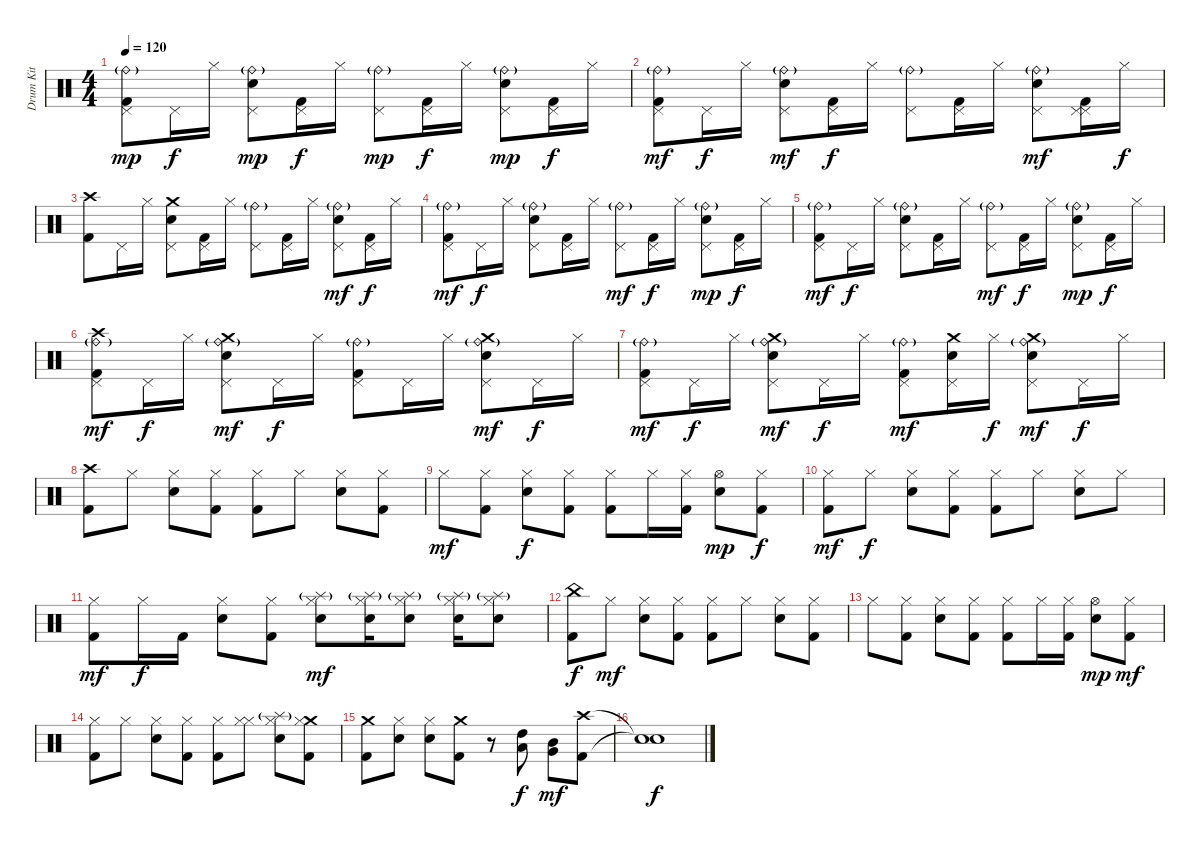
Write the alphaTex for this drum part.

\track ("Drum Kit" "Drum Kit") {instrument percussion}
\staff {score}
\articulation defaults
\ts (4 4)
\tempo 120
\clef neutral
\ks c
("Kick (hit) 2" "Pedal Hi-Hat (hit)" "Ride (bell)"{g}).8{dy mp} "Pedal Hi-Hat (hit)".16{dy f} "Hi-Hat (closed)".16 ("Electric Snare (hit)" "Pedal Hi-Hat (hit)" "Ride (bell)"{g}).8{dy mp} ("Kick (hit) 2" "Pedal Hi-Hat (hit)").16{dy f} "Hi-Hat (closed)".16 ("Pedal Hi-Hat (hit)" "Ride (bell)"{g}).8{dy mp} ("Kick (hit) 2" "Pedal Hi-Hat (hit)").16{dy f} "Hi-Hat (closed)".16 ("Electric Snare (hit)" "Pedal Hi-Hat (hit)" "Ride (bell)"{g}).8{dy mp} ("Kick (hit) 2" "Pedal Hi-Hat (hit)").16{dy f} "Hi-Hat (closed)".16 |
("Kick (hit) 2" "Pedal Hi-Hat (hit)" "Ride (bell)"{g}).8{dy mf} "Pedal Hi-Hat (hit)".16{dy f} "Hi-Hat (closed)".16 ("Electric Snare (hit)" "Pedal Hi-Hat (hit)" "Ride (bell)"{g}).8{dy mf} ("Kick (hit) 2" "Pedal Hi-Hat (hit)").16{dy f} "Hi-Hat (closed)".16 ("Pedal Hi-Hat (hit)" "Ride (bell)"{g}).8 ("Kick (hit) 2" "Pedal Hi-Hat (hit)").16 "Hi-Hat (closed)".16 ("Electric Snare (hit)" "Pedal Hi-Hat (hit)" "Ride (bell)"{g}).8{dy mf} ("Kick (hit) 2" "Pedal Hi-Hat (hit)" "Pedal Hi-Hat (hit)").16 "Hi-Hat (closed)".16{dy f} |
("Crash high (hit)" "Kick (hit) 2").8 "Pedal Hi-Hat (hit)".16 "Hi-Hat (closed)".16 ("Crash medium (hit)" "Electric Snare (hit)" "Pedal Hi-Hat (hit)").8 ("Kick (hit) 2" "Pedal Hi-Hat (hit)").16 "Hi-Hat (closed)".16 ("Pedal Hi-Hat (hit)" "Ride (bell)"{g}).8 ("Kick (hit) 2" "Pedal Hi-Hat (hit)").16 "Hi-Hat (closed)".16 ("Electric Snare (hit)" "Pedal Hi-Hat (hit)" "Ride (bell)"{g}).8{dy mf} ("Kick (hit) 2" "Pedal Hi-Hat (hit)").16{dy f} "Hi-Hat (closed)".16 |
("Kick (hit) 2" "Pedal Hi-Hat (hit)" "Ride (bell)"{g}).8{dy mf} "Pedal Hi-Hat (hit)".16{dy f} "Hi-Hat (closed)".16 ("Electric Snare (hit)" "Pedal Hi-Hat (hit)" "Ride (bell)"{g}).8 ("Kick (hit) 2" "Pedal Hi-Hat (hit)").16 "Hi-Hat (closed)".16 ("Pedal Hi-Hat (hit)" "Ride (bell)"{g}).8{dy mf} ("Kick (hit) 2" "Pedal Hi-Hat (hit)").16{dy f} "Hi-Hat (closed)".16 ("Electric Snare (hit)" "Pedal Hi-Hat (hit)" "Ride (bell)"{g}).8{dy mp} ("Kick (hit) 2" "Pedal Hi-Hat (hit)").16{dy f} "Hi-Hat (closed)".16 |
("Kick (hit) 2" "Pedal Hi-Hat (hit)" "Ride (bell)"{g}).8{dy mf} "Pedal Hi-Hat (hit)".16{dy f} "Hi-Hat (closed)".16 ("Electric Snare (hit)" "Pedal Hi-Hat (hit)" "Ride (bell)"{g}).8 ("Kick (hit) 2" "Pedal Hi-Hat (hit)").16 "Hi-Hat (closed)".16 ("Pedal Hi-Hat (hit)" "Ride (bell)"{g}).8{dy mf} ("Kick (hit) 2" "Pedal Hi-Hat (hit)").16{dy f} "Hi-Hat (closed)".16 ("Electric Snare (hit)" "Pedal Hi-Hat (hit)" "Ride (bell)"{g}).8{dy mp} ("Kick (hit) 2" "Pedal Hi-Hat (hit)").16{dy f} "Hi-Hat (closed)".16 |
("Crash high (hit)" "Kick (hit) 2" "Pedal Hi-Hat (hit)" "Ride (bell)"{g}).8{dy mf} "Pedal Hi-Hat (hit)".16{dy f} "Hi-Hat (closed)".16 ("Crash medium (hit)" "Electric Snare (hit)" "Pedal Hi-Hat (hit)" "Ride (bell)"{g}).8{dy mf} "Pedal Hi-Hat (hit)".16{dy f} "Hi-Hat (closed)".16 ("Kick (hit) 2" "Pedal Hi-Hat (hit)" "Ride (bell)"{g}).8 "Pedal Hi-Hat (hit)".16 "Hi-Hat (closed)".16 ("Crash medium (hit)" "Electric Snare (hit)" "Pedal Hi-Hat (hit)" "Ride (bell)"{g}).8{dy mf} "Pedal Hi-Hat (hit)".16{dy f} "Hi-Hat (closed)".16 |
("Kick (hit) 2" "Pedal Hi-Hat (hit)" "Ride (bell)"{g}).8{dy mf} "Pedal Hi-Hat (hit)".16{dy f} "Hi-Hat (closed)".16 ("Crash medium (hit)" "Electric Snare (hit)" "Pedal Hi-Hat (hit)" "Ride (bell)"{g}).8{dy mf} "Pedal Hi-Hat (hit)".16{dy f} "Hi-Hat (closed)".16 ("Kick (hit) 2" "Pedal Hi-Hat (hit)" "Ride (bell)"{g}).8{dy mf} ("Crash medium (hit)" "Electric Snare (hit)" "Pedal Hi-Hat (hit)").16 "Hi-Hat (closed)".16{dy f} ("Crash medium (hit)" "Electric Snare (hit)" "Pedal Hi-Hat (hit)" "Ride (bell)"{g}).8{dy mf} "Pedal Hi-Hat (hit)".16{dy f} "Hi-Hat (closed)".16 |
("Crash high (hit)" "Kick (hit) 2").8 "Hi-Hat (closed)".8 ("Electric Snare (hit)" "Hi-Hat (closed)").8 ("Kick (hit) 2" "Hi-Hat (closed)").8 ("Kick (hit) 2" "Hi-Hat (closed)").8 "Hi-Hat (closed)".8 ("Electric Snare (hit)" "Hi-Hat (closed)").8 ("Kick (hit) 2" "Hi-Hat (closed)").8 |
"Hi-Hat (closed)".8{dy mf} ("Kick (hit) 2" "Hi-Hat (closed)").8 ("Electric Snare (hit)" "Hi-Hat (closed)").8{dy f} ("Kick (hit) 2" "Hi-Hat (closed)").8 ("Kick (hit) 2" "Hi-Hat (closed)").8 "Hi-Hat (closed)".16 ("Kick (hit) 2" "Hi-Hat (closed)").16 ("Electric Snare (hit)" "Hi-Hat (open)").8{dy mp} ("Kick (hit) 2" "Hi-Hat (closed)").8{dy f} |
("Kick (hit) 2" "Hi-Hat (closed)").8{dy mf} "Hi-Hat (closed)".8{dy f} ("Electric Snare (hit)" "Hi-Hat (closed)").8 ("Kick (hit) 2" "Hi-Hat (closed)").8 ("Kick (hit) 2" "Hi-Hat (closed)").8 "Hi-Hat (closed)".8 ("Electric Snare (hit)" "Hi-Hat (closed)").8 "Hi-Hat (closed)".8 |
("Kick (hit) 2" "Hi-Hat (closed)").8{dy mf} "Hi-Hat (closed)".16{dy f} "Kick (hit) 2".16 ("Electric Snare (hit)" "Hi-Hat (closed)").8 ("Kick (hit) 2" "Hi-Hat (closed)").8 ("Electric Snare (hit)" "Splash (hit)"{g} "Hi-Hat (closed)").8{dy mf} ("Electric Snare (hit)" "Splash (hit)"{g} "Hi-Hat (closed)").16 ("Electric Snare (hit)" "Splash (hit)"{g} "Hi-Hat (closed)").8 ("Electric Snare (hit)" "Hi-Hat (closed)" "Splash (hit)"{g}).16 ("Electric Snare (hit)" "Hi-Hat (closed)" "Splash (hit)"{g}).8 |
("China (hit)" "Kick (hit) 2").8{dy f} "Hi-Hat (closed)".8{dy mf} ("Electric Snare (hit)" "Hi-Hat (closed)").8 ("Kick (hit) 2" "Hi-Hat (closed)").8 ("Kick (hit) 2" "Hi-Hat (closed)").8 "Hi-Hat (closed)".8 ("Electric Snare (hit)" "Hi-Hat (closed)").8 ("Kick (hit) 2" "Hi-Hat (closed)").8 |
"Hi-Hat (closed)".8 ("Kick (hit) 2" "Hi-Hat (closed)").8 ("Electric Snare (hit)" "Hi-Hat (closed)").8 ("Kick (hit) 2" "Hi-Hat (closed)").8 ("Kick (hit) 2" "Hi-Hat (closed)").8 "Hi-Hat (closed)".16 ("Kick (hit) 2" "Hi-Hat (closed)").16 ("Electric Snare (hit)" "Hi-Hat (open)").8{dy mp} ("Kick (hit) 2" "Hi-Hat (closed)").8{dy mf} |
("Kick (hit) 2" "Hi-Hat (closed)").8 "Hi-Hat (closed)".8 ("Electric Snare (hit)" "Hi-Hat (closed)").8 ("Kick (hit) 2" "Hi-Hat (closed)").8 ("Kick (hit) 2" "Hi-Hat (closed)").8 ("Hi-Hat (closed)" "Hi-Hat (closed)").8 ("Electric Snare (hit)" "Hi-Hat (closed)" "Splash (hit)"{g}).8 ("Crash medium (hit)" "Kick (hit) 2" "Hi-Hat (closed)").8 |
("Kick (hit) 2" "Crash medium (hit)").8 ("Electric Snare (hit)" "Hi-Hat (closed)").8 ("Electric Snare (hit)" "Hi-Hat (closed)").8 ("Kick (hit) 2" "Crash medium (hit)").8 r.8 ("High Tom (hit)" "Low Tom (hit)").8{dy f} ("Very Low Tom (hit)" "Mid Tom (hit)").8{dy mf} ("Kick (hit) 2" "Crash high (hit)").8 |
("Snare (hit)"{t} "Snare (hit)"{t}).1{dy f}
